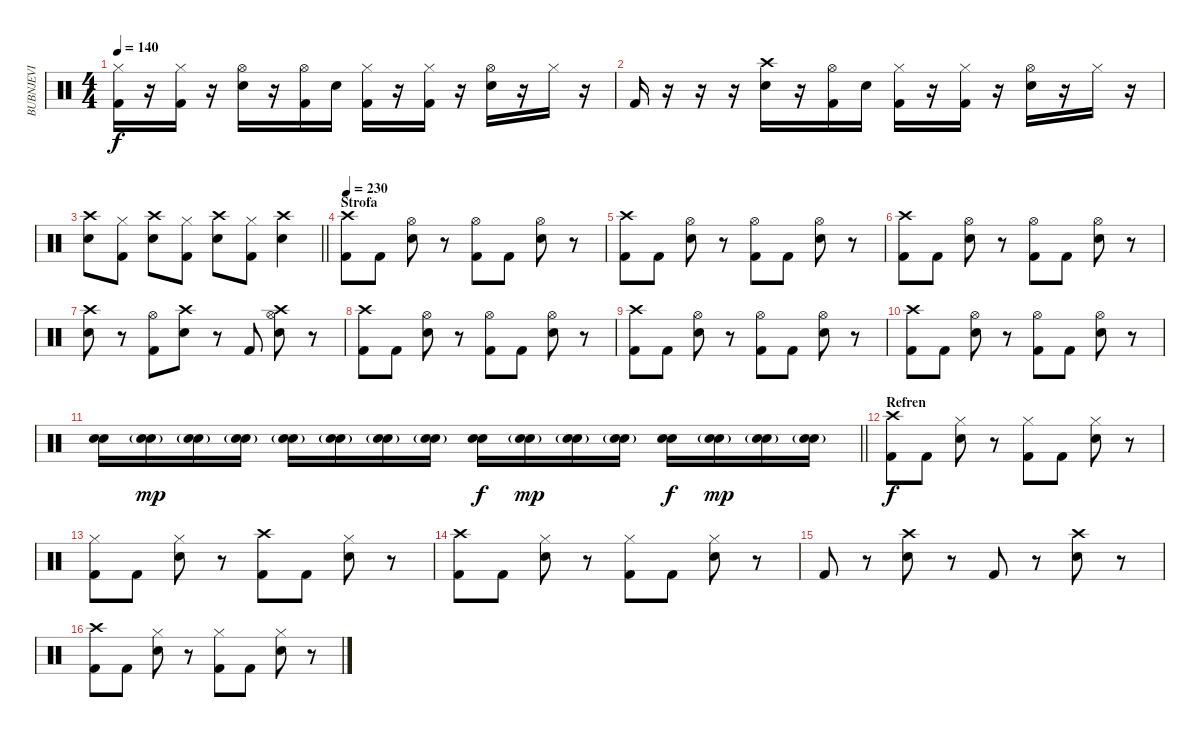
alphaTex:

\track ("BUBNJEVI" "BUBNJEVI") {instrument percussion}
\staff {score}
\articulation defaults
\ts (4 4)
\tempo 140
\clef neutral
\ks c
("Hi-Hat (closed)" "Kick (hit) 2").16{dy f} r.16 ("Hi-Hat (closed)" "Kick (hit) 2").16 r.16 ("Hi-Hat (open)" "Snare (hit) 2").16 r.16 ("Hi-Hat (open)" "Kick (hit) 2").16 "Snare (hit) 2".16 ("Hi-Hat (closed)" "Kick (hit) 2").16 r.16 ("Hi-Hat (closed)" "Kick (hit) 2").16 r.16 ("Hi-Hat (open)" "Snare (hit) 2").16 r.16 "Hi-Hat (closed)".16 r.16 |
"Kick (hit) 2".16 r.16 r.16 r.16 ("Crash high (hit)" "Snare (hit) 2").16 r.16 ("Hi-Hat (open)" "Kick (hit) 2").16 "Snare (hit) 2".16 ("Hi-Hat (closed)" "Kick (hit) 2").16 r.16 ("Hi-Hat (closed)" "Kick (hit) 2").16 r.16 ("Hi-Hat (open)" "Snare (hit) 2").16 r.16 "Hi-Hat (closed)".16 r.16 |
\barLineRight lightlight
("Crash high (hit)" "Snare (hit) 2").8 ("Hi-Hat (closed)" "Kick (hit) 2").8 ("Crash high (hit)" "Snare (hit) 2").8 ("Hi-Hat (closed)" "Kick (hit) 2").8 ("Crash high (hit)" "Snare (hit) 2").8 ("Hi-Hat (closed)" "Kick (hit) 2").8 ("Crash high (hit)" "Snare (hit) 2").4 |
\section ("" "Strofa")
\tempo 230
("Crash high (hit)" "Kick (hit) 2").8 "Kick (hit) 2".8 ("Hi-Hat (open)" "Snare (hit) 2").8 r.8 ("Hi-Hat (open)" "Kick (hit) 2").8 "Kick (hit) 2".8 ("Hi-Hat (open)" "Snare (hit) 2").8 r.8 |
("Crash high (hit)" "Kick (hit) 2").8 "Kick (hit) 2".8 ("Hi-Hat (open)" "Snare (hit) 2").8 r.8 ("Hi-Hat (open)" "Kick (hit) 2").8 "Kick (hit) 2".8 ("Hi-Hat (open)" "Snare (hit) 2").8 r.8 |
("Crash high (hit)" "Kick (hit) 2").8 "Kick (hit) 2".8 ("Hi-Hat (open)" "Snare (hit) 2").8 r.8 ("Hi-Hat (open)" "Kick (hit) 2").8 "Kick (hit) 2".8 ("Hi-Hat (open)" "Snare (hit) 2").8 r.8 |
("Crash high (hit)" "Snare (hit) 2").8 r.8 ("Hi-Hat (open)" "Kick (hit) 2").8 ("Crash high (hit)" "Snare (hit) 2").8 r.8 "Kick (hit) 2".8 ("Crash high (hit)" "Hi-Hat (open)" "Snare (hit) 2").8 r.8 |
("Crash high (hit)" "Kick (hit) 2").8 "Kick (hit) 2".8 ("Hi-Hat (open)" "Snare (hit) 2").8 r.8 ("Hi-Hat (open)" "Kick (hit) 2").8 "Kick (hit) 2".8 ("Hi-Hat (open)" "Snare (hit) 2").8 r.8 |
("Crash high (hit)" "Kick (hit) 2").8 "Kick (hit) 2".8 ("Hi-Hat (open)" "Snare (hit) 2").8 r.8 ("Hi-Hat (open)" "Kick (hit) 2").8 "Kick (hit) 2".8 ("Hi-Hat (open)" "Snare (hit) 2").8 r.8 |
("Crash high (hit)" "Kick (hit) 2").8 "Kick (hit) 2".8 ("Hi-Hat (open)" "Snare (hit) 2").8 r.8 ("Hi-Hat (open)" "Kick (hit) 2").8 "Kick (hit) 2".8 ("Hi-Hat (open)" "Snare (hit) 2").8 r.8 |
\barLineRight lightlight
("Snare (hit) 2" "Snare (hit) 2").16 ("Snare (hit) 2"{g} "Snare (hit) 2"{g}).16{dy mp} ("Snare (hit) 2"{g} "Snare (hit) 2"{g}).16 ("Snare (hit) 2"{g} "Snare (hit) 2"{g}).16 ("Snare (hit) 2"{g} "Snare (hit) 2"{g}).16 ("Snare (hit) 2"{g} "Snare (hit) 2"{g}).16 ("Snare (hit) 2"{g} "Snare (hit) 2"{g}).16 ("Snare (hit) 2"{g} "Snare (hit) 2"{g}).16 ("Snare (hit) 2" "Snare (hit) 2").16{dy f} ("Snare (hit) 2"{g} "Snare (hit) 2"{g}).16{dy mp} ("Snare (hit) 2" "Snare (hit) 2"{g}).16 ("Snare (hit) 2" "Snare (hit) 2"{g}).16 ("Snare (hit) 2" "Snare (hit) 2").16{dy f} ("Snare (hit) 2"{g} "Snare (hit) 2"{g}).16{dy mp} ("Snare (hit) 2" "Snare (hit) 2"{g}).16 ("Snare (hit) 2" "Snare (hit) 2"{g}).16 |
\section ("" "Refren")
("Crash high (hit)" "Kick (hit) 2").8{dy f} "Kick (hit) 2".8 ("Hi-Hat (closed)" "Snare (hit) 2").8 r.8 ("Hi-Hat (closed)" "Kick (hit) 2").8 "Kick (hit) 2".8 ("Hi-Hat (closed)" "Snare (hit) 2").8 r.8 |
("Hi-Hat (closed)" "Kick (hit) 2").8 "Kick (hit) 2".8 ("Hi-Hat (closed)" "Snare (hit) 2").8 r.8 ("Crash high (hit)" "Kick (hit) 2").8 "Kick (hit) 2".8 ("Hi-Hat (closed)" "Snare (hit) 2").8 r.8 |
("Crash high (hit)" "Kick (hit) 2").8 "Kick (hit) 2".8 ("Hi-Hat (closed)" "Snare (hit) 2").8 r.8 ("Hi-Hat (closed)" "Kick (hit) 2").8 "Kick (hit) 2".8 ("Hi-Hat (closed)" "Snare (hit) 2").8 r.8 |
"Kick (hit) 2".8 r.8 ("Crash high (hit)" "Snare (hit) 2").8 r.8 "Kick (hit) 2".8 r.8 ("Crash high (hit)" "Snare (hit) 2").8 r.8 |
("Crash high (hit)" "Kick (hit) 2").8 "Kick (hit) 2".8 ("Hi-Hat (closed)" "Snare (hit) 2").8 r.8 ("Hi-Hat (closed)" "Kick (hit) 2").8 "Kick (hit) 2".8 ("Hi-Hat (closed)" "Snare (hit) 2").8 r.8
